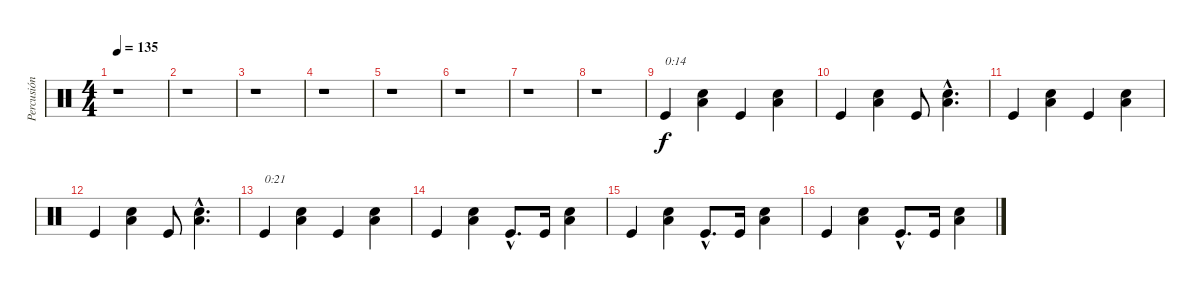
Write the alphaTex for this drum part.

\track ("Percusión" "Percusión") {instrument percussion}
\staff {score}
\articulation defaults
\ts (4 4)
\tempo 135
\clef neutral
\ks c
r.1{dy f} |
r.1 |
r.1 |
r.1 |
r.1 |
r.1 |
r.1 |
r.1 |
"Kick (hit)".4{txt "0:14"} ("Snare (hit) 2" "Low Tom (hit)").4 "Kick (hit)".4 ("Snare (hit) 2" "Low Tom (hit)").4 |
"Kick (hit)".4 ("Snare (hit) 2" "Low Tom (hit)").4 "Kick (hit)".8 ("Snare (hit) 2"{hac} "Low Tom (hit)"{hac}).4{d} |
"Kick (hit)".4 ("Snare (hit) 2" "Low Tom (hit)").4 "Kick (hit)".4 ("Snare (hit) 2" "Low Tom (hit)").4 |
"Kick (hit)".4 ("Snare (hit) 2" "Low Tom (hit)").4 "Kick (hit)".8 ("Snare (hit) 2"{hac} "Low Tom (hit)"{hac}).4{d} |
"Kick (hit)".4{txt "0:21"} ("Snare (hit) 2" "Low Tom (hit)").4 "Kick (hit)".4 ("Snare (hit) 2" "Low Tom (hit)").4 |
"Kick (hit)".4 ("Snare (hit) 2" "Low Tom (hit)").4 "Kick (hit)"{hac}.8{d} "Kick (hit)".16 ("Snare (hit) 2" "Low Tom (hit)").4 |
"Kick (hit)".4 ("Snare (hit) 2" "Low Tom (hit)").4 "Kick (hit)"{hac}.8{d} "Kick (hit)".16 ("Snare (hit) 2" "Low Tom (hit)").4 |
"Kick (hit)".4 ("Snare (hit) 2" "Low Tom (hit)").4 "Kick (hit)"{hac}.8{d} "Kick (hit)".16 ("Snare (hit) 2" "Low Tom (hit)").4
